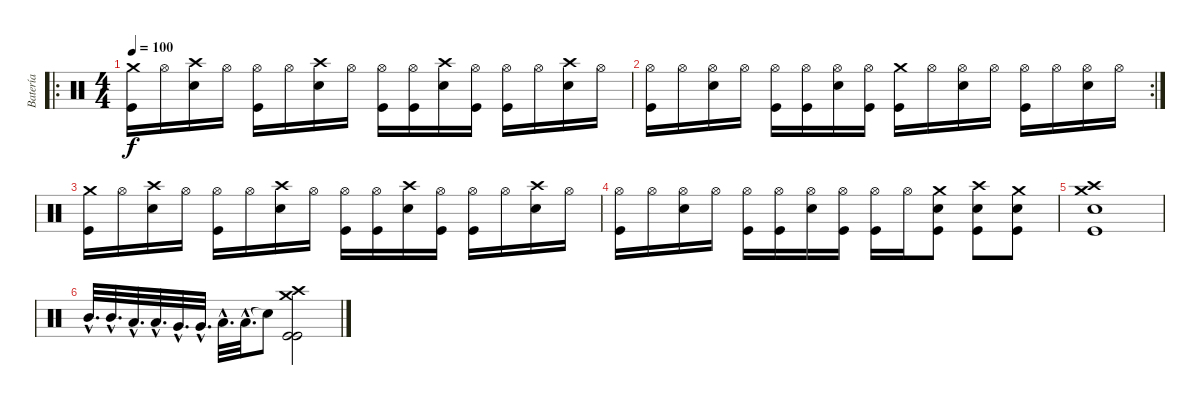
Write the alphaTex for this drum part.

\track ("Batería" "Batería") {instrument percussion}
\staff {score}
\articulation defaults
\ro
\ts (4 4)
\tempo 100
\clef neutral
\ks c
("Crash medium (hit)" "Kick (hit)").16{dy f} "Hi-Hat (open)".16 ("Crash high (hit)" "Snare (hit) 2").16 "Hi-Hat (open)".16 ("Hi-Hat (open)" "Kick (hit)").16 "Hi-Hat (open)".16 ("Crash high (hit)" "Snare (hit) 2").16 "Hi-Hat (open)".16 ("Hi-Hat (open)" "Kick (hit)").16 ("Hi-Hat (open)" "Kick (hit)").16 ("Crash high (hit)" "Snare (hit) 2").16 ("Hi-Hat (open)" "Kick (hit)").16 ("Hi-Hat (open)" "Kick (hit)").16 "Hi-Hat (open)".16 ("Crash high (hit)" "Snare (hit) 2").16 "Hi-Hat (open)".16 |
\rc 2
("Hi-Hat (open)" "Kick (hit)").16 "Hi-Hat (open)".16 ("Hi-Hat (open)" "Snare (hit) 2").16 "Hi-Hat (open)".16 ("Hi-Hat (open)" "Kick (hit)").16 ("Hi-Hat (open)" "Kick (hit)").16 ("Hi-Hat (open)" "Snare (hit) 2").16 ("Hi-Hat (open)" "Kick (hit)").16 ("Crash medium (hit)" "Kick (hit)").16 "Hi-Hat (open)".16 ("Hi-Hat (open)" "Snare (hit) 2").16 "Hi-Hat (open)".16 ("Hi-Hat (open)" "Kick (hit)").16 "Hi-Hat (open)".16 ("Hi-Hat (open)" "Snare (hit) 2").16 "Hi-Hat (open)".16 |
("Crash medium (hit)" "Kick (hit)").16 "Hi-Hat (open)".16 ("Crash high (hit)" "Snare (hit) 2").16 "Hi-Hat (open)".16 ("Hi-Hat (open)" "Kick (hit)").16 "Hi-Hat (open)".16 ("Crash high (hit)" "Snare (hit) 2").16 "Hi-Hat (open)".16 ("Hi-Hat (open)" "Kick (hit)").16 ("Hi-Hat (open)" "Kick (hit)").16 ("Crash high (hit)" "Snare (hit) 2").16 ("Hi-Hat (open)" "Kick (hit)").16 ("Hi-Hat (open)" "Kick (hit)").16 "Hi-Hat (open)".16 ("Crash high (hit)" "Snare (hit) 2").16 "Hi-Hat (open)".16 |
("Hi-Hat (open)" "Kick (hit)").16 "Hi-Hat (open)".16 ("Hi-Hat (open)" "Snare (hit) 2").16 "Hi-Hat (open)".16 ("Hi-Hat (open)" "Kick (hit)").16 ("Hi-Hat (open)" "Kick (hit)").16 ("Hi-Hat (open)" "Snare (hit) 2").16 ("Hi-Hat (open)" "Kick (hit)").16 ("Hi-Hat (open)" "Kick (hit)").16 "Hi-Hat (open)".16 ("Crash medium (hit)" "Snare (hit) 2" "Kick (hit)").8 ("Crash high (hit)" "Snare (hit) 2" "Kick (hit)").8 ("Crash medium (hit)" "Snare (hit) 2" "Kick (hit)").8 |
("Crash medium (hit)" "Crash high (hit)" "Snare (hit) 2" "Kick (hit)").1 |
"Mid Tom (hit)"{hac}.32{d} "Mid Tom (hit)"{hac}.32{d} "Low Tom (hit)"{hac}.32{d} "Low Tom (hit)"{hac}.32{d} "Very Low Tom (hit)"{hac}.32{d} "Very Low Tom (hit)"{hac}.32{d} "Low Floor Tom (hit)"{hac}.32{d} "Low Floor Tom (hit)"{hac}.32{d} "Snare (hit)"{t}.8 ("Crash medium (hit)" "Crash high (hit)" "Kick (hit)" "Kick (hit)").2
